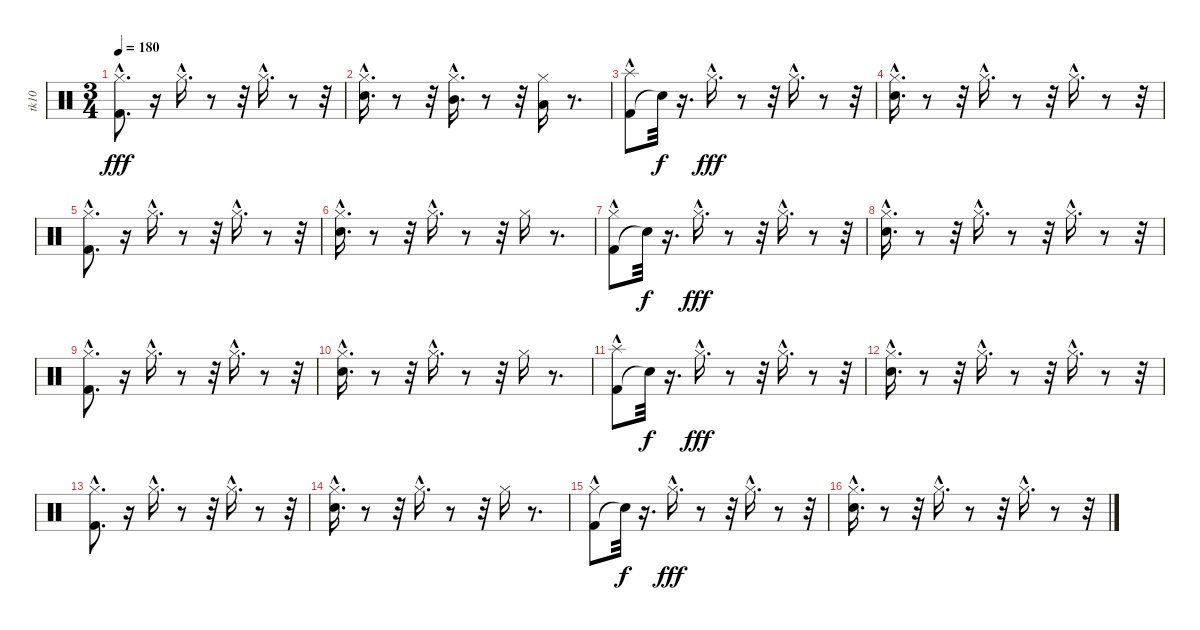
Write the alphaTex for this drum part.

\track ("tk10" "tk10") {instrument percussion}
\staff {score}
\articulation defaults
\ts (3 4)
\tempo 180
\clef neutral
\ks c
("Kick (hit) 2"{hac} "Hi-Hat (closed)"{hac}).8{d dy fff} r.16 "Hi-Hat (closed)"{hac}.16{d} r.8 r.32 "Hi-Hat (closed)"{hac}.16{d} r.8 r.32 |
("Snare (hit) 2"{hac} "Hi-Hat (closed)"{hac}).16{d} r.8 r.32 ("Mid Tom (hit)"{hac} "Hi-Hat (closed)"{hac}).16{d} r.8 r.32 ("Low Tom (hit)" "Hi-Hat (closed)").16 r.8{d} |
("Kick (hit) 2" "Splash (hit)"{hac}).8 "Snare (hit)"{t}.32{dy f} r.16{d} "Hi-Hat (closed)"{hac}.16{d dy fff} r.8 r.32 "Hi-Hat (closed)"{hac}.16{d} r.8 r.32 |
("Snare (hit) 2"{hac} "Hi-Hat (closed)"{hac}).16{d} r.8 r.32 "Hi-Hat (closed)"{hac}.16{d} r.8 r.32 "Hi-Hat (closed)"{hac}.16{d} r.8 r.32 |
("Kick (hit) 2"{hac} "Hi-Hat (closed)"{hac}).8{d} r.16 "Hi-Hat (closed)"{hac}.16{d} r.8 r.32 "Hi-Hat (closed)"{hac}.16{d} r.8 r.32 |
("Snare (hit) 2"{hac} "Hi-Hat (closed)"{hac}).16{d} r.8 r.32 "Hi-Hat (closed)"{hac}.16{d} r.8 r.32 "Hi-Hat (closed)".16 r.8{d} |
("Kick (hit) 2" "Hi-Hat (closed)"{hac}).8 "Snare (hit)"{t}.32{dy f} r.16{d} "Hi-Hat (closed)"{hac}.16{d dy fff} r.8 r.32 "Hi-Hat (closed)"{hac}.16{d} r.8 r.32 |
("Snare (hit) 2"{hac} "Hi-Hat (closed)"{hac}).16{d} r.8 r.32 "Hi-Hat (closed)"{hac}.16{d} r.8 r.32 "Hi-Hat (closed)"{hac}.16{d} r.8 r.32 |
("Kick (hit) 2"{hac} "Hi-Hat (closed)"{hac}).8{d} r.16 "Hi-Hat (closed)"{hac}.16{d} r.8 r.32 "Hi-Hat (closed)"{hac}.16{d} r.8 r.32 |
("Snare (hit) 2"{hac} "Hi-Hat (closed)"{hac}).16{d} r.8 r.32 "Hi-Hat (closed)"{hac}.16{d} r.8 r.32 "Hi-Hat (closed)".16 r.8{d} |
("Kick (hit) 2" "Splash (hit)"{hac}).8 "Snare (hit)"{t}.32{dy f} r.16{d} "Hi-Hat (closed)"{hac}.16{d dy fff} r.8 r.32 "Hi-Hat (closed)"{hac}.16{d} r.8 r.32 |
("Snare (hit) 2"{hac} "Hi-Hat (closed)"{hac}).16{d} r.8 r.32 "Hi-Hat (closed)"{hac}.16{d} r.8 r.32 "Hi-Hat (closed)"{hac}.16{d} r.8 r.32 |
("Kick (hit) 2"{hac} "Hi-Hat (closed)"{hac}).8{d} r.16 "Hi-Hat (closed)"{hac}.16{d} r.8 r.32 "Hi-Hat (closed)"{hac}.16{d} r.8 r.32 |
("Snare (hit) 2"{hac} "Hi-Hat (closed)"{hac}).16{d} r.8 r.32 "Hi-Hat (closed)"{hac}.16{d} r.8 r.32 "Hi-Hat (closed)".16 r.8{d} |
("Kick (hit) 2" "Hi-Hat (closed)"{hac}).8 "Snare (hit)"{t}.32{dy f} r.16{d} "Hi-Hat (closed)"{hac}.16{d dy fff} r.8 r.32 "Hi-Hat (closed)"{hac}.16{d} r.8 r.32 |
("Snare (hit) 2"{hac} "Hi-Hat (closed)"{hac}).16{d} r.8 r.32 "Hi-Hat (closed)"{hac}.16{d} r.8 r.32 "Hi-Hat (closed)"{hac}.16{d} r.8 r.32
